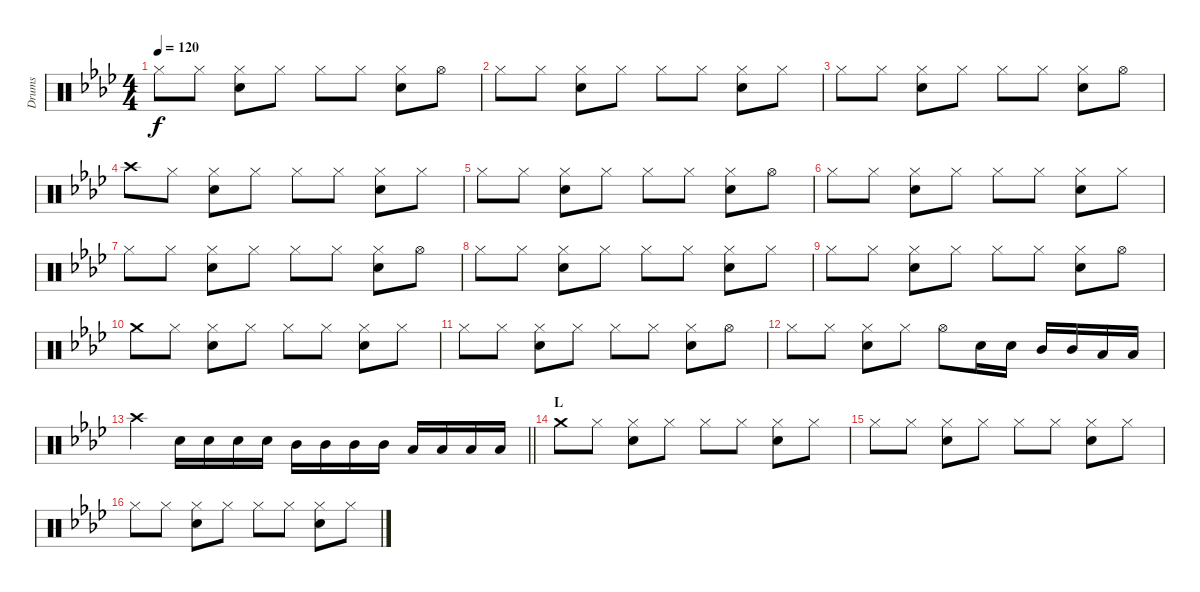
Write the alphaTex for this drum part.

\track ("Drums" "Drums") {instrument percussion}
\staff {score}
\articulation defaults
\ts (4 4)
\tempo 120
\clef neutral
\ks ab "Hi-Hat (closed)".8{dy f} "Hi-Hat (closed)".8
("Hi-Hat (closed)" "Snare (hit) 2").8 "Hi-Hat (closed)".8 "Hi-Hat (closed)".8 "Hi-Hat (closed)".8 ("Hi-Hat (closed)" "Snare (hit) 2").8 "Hi-Hat (open)".8 |
"Hi-Hat (closed)".8 "Hi-Hat (closed)".8 ("Hi-Hat (closed)" "Snare (hit) 2").8 "Hi-Hat (closed)".8 "Hi-Hat (closed)".8 "Hi-Hat (closed)".8 ("Hi-Hat (closed)" "Snare (hit) 2").8 "Hi-Hat (closed)".8 |
"Hi-Hat (closed)".8 "Hi-Hat (closed)".8 ("Hi-Hat (closed)" "Snare (hit) 2").8 "Hi-Hat (closed)".8 "Hi-Hat (closed)".8 "Hi-Hat (closed)".8 ("Hi-Hat (closed)" "Snare (hit) 2").8 "Hi-Hat (open)".8 |
"Crash high (hit)".8 "Hi-Hat (closed)".8 ("Hi-Hat (closed)" "Snare (hit) 2").8 "Hi-Hat (closed)".8 "Hi-Hat (closed)".8 "Hi-Hat (closed)".8 ("Hi-Hat (closed)" "Snare (hit) 2").8 "Hi-Hat (closed)".8 |
"Hi-Hat (closed)".8 "Hi-Hat (closed)".8 ("Hi-Hat (closed)" "Snare (hit) 2").8 "Hi-Hat (closed)".8 "Hi-Hat (closed)".8 "Hi-Hat (closed)".8 ("Hi-Hat (closed)" "Snare (hit) 2").8 "Hi-Hat (open)".8 |
"Hi-Hat (closed)".8 "Hi-Hat (closed)".8 ("Hi-Hat (closed)" "Snare (hit) 2").8 "Hi-Hat (closed)".8 "Hi-Hat (closed)".8 "Hi-Hat (closed)".8 ("Hi-Hat (closed)" "Snare (hit) 2").8 "Hi-Hat (closed)".8 |
"Hi-Hat (closed)".8 "Hi-Hat (closed)".8 ("Hi-Hat (closed)" "Snare (hit) 2").8 "Hi-Hat (closed)".8 "Hi-Hat (closed)".8 "Hi-Hat (closed)".8 ("Hi-Hat (closed)" "Snare (hit) 2").8 "Hi-Hat (open)".8 |
"Hi-Hat (closed)".8 "Hi-Hat (closed)".8 ("Hi-Hat (closed)" "Snare (hit) 2").8 "Hi-Hat (closed)".8 "Hi-Hat (closed)".8 "Hi-Hat (closed)".8 ("Hi-Hat (closed)" "Snare (hit) 2").8 "Hi-Hat (closed)".8 |
"Hi-Hat (closed)".8 "Hi-Hat (closed)".8 ("Hi-Hat (closed)" "Snare (hit) 2").8 "Hi-Hat (closed)".8 "Hi-Hat (closed)".8 "Hi-Hat (closed)".8 ("Hi-Hat (closed)" "Snare (hit) 2").8 "Hi-Hat (open)".8 |
"Crash medium (hit)".8 "Hi-Hat (closed)".8 ("Hi-Hat (closed)" "Snare (hit) 2").8 "Hi-Hat (closed)".8 "Hi-Hat (closed)".8 "Hi-Hat (closed)".8 ("Hi-Hat (closed)" "Snare (hit) 2").8 "Hi-Hat (closed)".8 |
"Hi-Hat (closed)".8 "Hi-Hat (closed)".8 ("Hi-Hat (closed)" "Snare (hit) 2").8 "Hi-Hat (closed)".8 "Hi-Hat (closed)".8 "Hi-Hat (closed)".8 ("Hi-Hat (closed)" "Snare (hit) 2").8 "Hi-Hat (open)".8 |
"Hi-Hat (closed)".8 "Hi-Hat (closed)".8 ("Hi-Hat (closed)" "Snare (hit) 2").8 "Hi-Hat (closed)".8 "Hi-Hat (open)".8 "Snare (hit) 2".16 "Snare (hit) 2".16 "Mid Tom (hit)".16 "Mid Tom (hit)".16 "Low Tom (hit)".16 "Low Tom (hit)".16 |
\barLineRight lightlight "Crash high (hit)".4 "Snare (hit) 2".16 "Snare (hit) 2".16 "Snare (hit) 2".16 "Snare (hit) 2".16 "Mid Tom (hit)".16 "Mid Tom (hit)".16 "Mid Tom (hit)".16 "Mid Tom (hit)".16 "Low Tom (hit)".16 "Low Tom (hit)".16 "Low Tom (hit)".16 "Low Tom (hit)".16
|
\section ("" "L")
"Crash medium (hit)".8 "Hi-Hat (closed)".8 ("Hi-Hat (closed)" "Snare (hit) 2").8 "Hi-Hat (closed)".8 "Hi-Hat (closed)".8 "Hi-Hat (closed)".8 ("Hi-Hat (closed)" "Snare (hit) 2").8 "Hi-Hat (closed)".8 |
"Hi-Hat (closed)".8 "Hi-Hat (closed)".8 ("Hi-Hat (closed)" "Snare (hit) 2").8 "Hi-Hat (closed)".8 "Hi-Hat (closed)".8 "Hi-Hat (closed)".8 ("Hi-Hat (closed)" "Snare (hit) 2").8 "Hi-Hat (closed)".8 |
"Hi-Hat (closed)".8 "Hi-Hat (closed)".8 ("Hi-Hat (closed)" "Snare (hit) 2").8 "Hi-Hat (closed)".8 "Hi-Hat (closed)".8 "Hi-Hat (closed)".8 ("Hi-Hat (closed)" "Snare (hit) 2").8 "Hi-Hat (closed)".8
